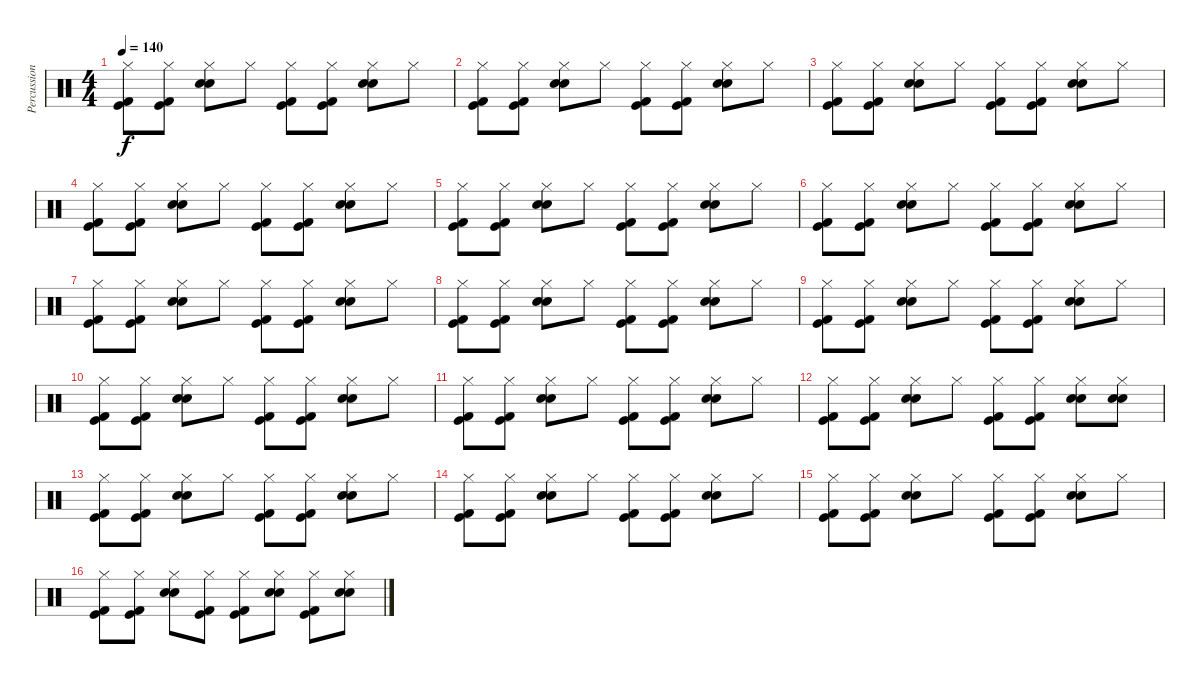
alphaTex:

\track ("Percussion" "Percussion") {instrument percussion}
\staff {score}
\articulation defaults
\ts (4 4)
\tempo 140
\clef neutral
\ks c
("Hi-Hat (closed)" "Kick (hit) 2" "Kick (hit)").8{dy f} ("Hi-Hat (closed)" "Kick (hit) 2" "Kick (hit)").8 ("Hi-Hat (closed)" "Electric Snare (hit)" "Snare (hit) 2").8 "Hi-Hat (closed)".8 ("Hi-Hat (closed)" "Kick (hit) 2" "Kick (hit)").8 ("Hi-Hat (closed)" "Kick (hit) 2" "Kick (hit)").8 ("Hi-Hat (closed)" "Electric Snare (hit)" "Snare (hit) 2").8 "Hi-Hat (closed)".8 |
("Hi-Hat (closed)" "Kick (hit) 2" "Kick (hit)").8 ("Hi-Hat (closed)" "Kick (hit) 2" "Kick (hit)").8 ("Hi-Hat (closed)" "Electric Snare (hit)" "Snare (hit) 2").8 "Hi-Hat (closed)".8 ("Hi-Hat (closed)" "Kick (hit) 2" "Kick (hit)").8 ("Hi-Hat (closed)" "Kick (hit) 2" "Kick (hit)").8 ("Hi-Hat (closed)" "Electric Snare (hit)" "Snare (hit) 2").8 "Hi-Hat (closed)".8 |
("Hi-Hat (closed)" "Kick (hit) 2" "Kick (hit)").8 ("Hi-Hat (closed)" "Kick (hit) 2" "Kick (hit)").8 ("Hi-Hat (closed)" "Electric Snare (hit)" "Snare (hit) 2").8 "Hi-Hat (closed)".8 ("Hi-Hat (closed)" "Kick (hit) 2" "Kick (hit)").8 ("Hi-Hat (closed)" "Kick (hit) 2" "Kick (hit)").8 ("Hi-Hat (closed)" "Electric Snare (hit)" "Snare (hit) 2").8 "Hi-Hat (closed)".8 |
("Hi-Hat (closed)" "Kick (hit) 2" "Kick (hit)").8 ("Hi-Hat (closed)" "Kick (hit) 2" "Kick (hit)").8 ("Hi-Hat (closed)" "Electric Snare (hit)" "Snare (hit) 2").8 "Hi-Hat (closed)".8 ("Hi-Hat (closed)" "Kick (hit) 2" "Kick (hit)").8 ("Hi-Hat (closed)" "Kick (hit) 2" "Kick (hit)").8 ("Hi-Hat (closed)" "Electric Snare (hit)" "Snare (hit) 2").8 "Hi-Hat (closed)".8 |
("Hi-Hat (closed)" "Kick (hit) 2" "Kick (hit)").8 ("Hi-Hat (closed)" "Kick (hit) 2" "Kick (hit)").8 ("Hi-Hat (closed)" "Electric Snare (hit)" "Snare (hit) 2").8 "Hi-Hat (closed)".8 ("Hi-Hat (closed)" "Kick (hit) 2" "Kick (hit)").8 ("Hi-Hat (closed)" "Kick (hit) 2" "Kick (hit)").8 ("Hi-Hat (closed)" "Electric Snare (hit)" "Snare (hit) 2").8 "Hi-Hat (closed)".8 |
("Hi-Hat (closed)" "Kick (hit) 2" "Kick (hit)").8 ("Hi-Hat (closed)" "Kick (hit) 2" "Kick (hit)").8 ("Hi-Hat (closed)" "Electric Snare (hit)" "Snare (hit) 2").8 "Hi-Hat (closed)".8 ("Hi-Hat (closed)" "Kick (hit) 2" "Kick (hit)").8 ("Hi-Hat (closed)" "Kick (hit) 2" "Kick (hit)").8 ("Hi-Hat (closed)" "Electric Snare (hit)" "Snare (hit) 2").8 "Hi-Hat (closed)".8 |
("Hi-Hat (closed)" "Kick (hit) 2" "Kick (hit)").8 ("Hi-Hat (closed)" "Kick (hit) 2" "Kick (hit)").8 ("Hi-Hat (closed)" "Electric Snare (hit)" "Snare (hit) 2").8 "Hi-Hat (closed)".8 ("Hi-Hat (closed)" "Kick (hit) 2" "Kick (hit)").8 ("Hi-Hat (closed)" "Kick (hit) 2" "Kick (hit)").8 ("Hi-Hat (closed)" "Electric Snare (hit)" "Snare (hit) 2").8 "Hi-Hat (closed)".8 |
("Hi-Hat (closed)" "Kick (hit) 2" "Kick (hit)").8 ("Hi-Hat (closed)" "Kick (hit) 2" "Kick (hit)").8 ("Hi-Hat (closed)" "Electric Snare (hit)" "Snare (hit) 2").8 "Hi-Hat (closed)".8 ("Hi-Hat (closed)" "Kick (hit) 2" "Kick (hit)").8 ("Hi-Hat (closed)" "Kick (hit) 2" "Kick (hit)").8 ("Hi-Hat (closed)" "Electric Snare (hit)" "Snare (hit) 2").8 "Hi-Hat (closed)".8 |
("Hi-Hat (closed)" "Kick (hit) 2" "Kick (hit)").8 ("Hi-Hat (closed)" "Kick (hit) 2" "Kick (hit)").8 ("Hi-Hat (closed)" "Electric Snare (hit)" "Snare (hit) 2").8 "Hi-Hat (closed)".8 ("Hi-Hat (closed)" "Kick (hit) 2" "Kick (hit)").8 ("Hi-Hat (closed)" "Kick (hit) 2" "Kick (hit)").8 ("Hi-Hat (closed)" "Electric Snare (hit)" "Snare (hit) 2").8 "Hi-Hat (closed)".8 |
("Hi-Hat (closed)" "Kick (hit) 2" "Kick (hit)").8 ("Hi-Hat (closed)" "Kick (hit) 2" "Kick (hit)").8 ("Hi-Hat (closed)" "Electric Snare (hit)" "Snare (hit) 2").8 "Hi-Hat (closed)".8 ("Hi-Hat (closed)" "Kick (hit) 2" "Kick (hit)").8 ("Hi-Hat (closed)" "Kick (hit) 2" "Kick (hit)").8 ("Hi-Hat (closed)" "Electric Snare (hit)" "Snare (hit) 2").8 "Hi-Hat (closed)".8 |
("Hi-Hat (closed)" "Kick (hit) 2" "Kick (hit)").8 ("Hi-Hat (closed)" "Kick (hit) 2" "Kick (hit)").8 ("Hi-Hat (closed)" "Electric Snare (hit)" "Snare (hit) 2").8 "Hi-Hat (closed)".8 ("Hi-Hat (closed)" "Kick (hit) 2" "Kick (hit)").8 ("Hi-Hat (closed)" "Kick (hit) 2" "Kick (hit)").8 ("Hi-Hat (closed)" "Electric Snare (hit)" "Snare (hit) 2").8 "Hi-Hat (closed)".8 |
("Hi-Hat (closed)" "Kick (hit) 2" "Kick (hit)").8 ("Hi-Hat (closed)" "Kick (hit) 2" "Kick (hit)").8 ("Hi-Hat (closed)" "Electric Snare (hit)" "Snare (hit) 2").8 "Hi-Hat (closed)".8 ("Hi-Hat (closed)" "Kick (hit) 2" "Kick (hit)").8 ("Hi-Hat (closed)" "Kick (hit) 2" "Kick (hit)").8 ("Hi-Hat (closed)" "Electric Snare (hit)" "Snare (hit) 2").8 ("Hi-Hat (closed)" "Electric Snare (hit)" "Snare (hit) 2").8 |
("Hi-Hat (closed)" "Kick (hit) 2" "Kick (hit)").8 ("Hi-Hat (closed)" "Kick (hit) 2" "Kick (hit)").8 ("Hi-Hat (closed)" "Electric Snare (hit)" "Snare (hit) 2").8 "Hi-Hat (closed)".8 ("Hi-Hat (closed)" "Kick (hit) 2" "Kick (hit)").8 ("Hi-Hat (closed)" "Kick (hit) 2" "Kick (hit)").8 ("Hi-Hat (closed)" "Electric Snare (hit)" "Snare (hit) 2").8 "Hi-Hat (closed)".8 |
("Hi-Hat (closed)" "Kick (hit) 2" "Kick (hit)").8 ("Hi-Hat (closed)" "Kick (hit) 2" "Kick (hit)").8 ("Hi-Hat (closed)" "Electric Snare (hit)" "Snare (hit) 2").8 "Hi-Hat (closed)".8 ("Hi-Hat (closed)" "Kick (hit) 2" "Kick (hit)").8 ("Hi-Hat (closed)" "Kick (hit) 2" "Kick (hit)").8 ("Hi-Hat (closed)" "Electric Snare (hit)" "Snare (hit) 2").8 "Hi-Hat (closed)".8 |
("Hi-Hat (closed)" "Kick (hit) 2" "Kick (hit)").8 ("Hi-Hat (closed)" "Kick (hit) 2" "Kick (hit)").8 ("Hi-Hat (closed)" "Electric Snare (hit)" "Snare (hit) 2").8 "Hi-Hat (closed)".8 ("Hi-Hat (closed)" "Kick (hit) 2" "Kick (hit)").8 ("Hi-Hat (closed)" "Kick (hit) 2" "Kick (hit)").8 ("Hi-Hat (closed)" "Electric Snare (hit)" "Snare (hit) 2").8 "Hi-Hat (closed)".8 |
("Hi-Hat (closed)" "Kick (hit) 2" "Kick (hit)").8 ("Hi-Hat (closed)" "Kick (hit) 2" "Kick (hit)").8 ("Hi-Hat (closed)" "Electric Snare (hit)" "Snare (hit) 2").8 ("Hi-Hat (closed)" "Kick (hit) 2" "Kick (hit)").8 ("Hi-Hat (closed)" "Kick (hit) 2" "Kick (hit)").8 ("Hi-Hat (closed)" "Electric Snare (hit)" "Snare (hit) 2").8 ("Hi-Hat (closed)" "Kick (hit) 2" "Kick (hit)").8 ("Hi-Hat (closed)" "Electric Snare (hit)" "Snare (hit) 2").8
